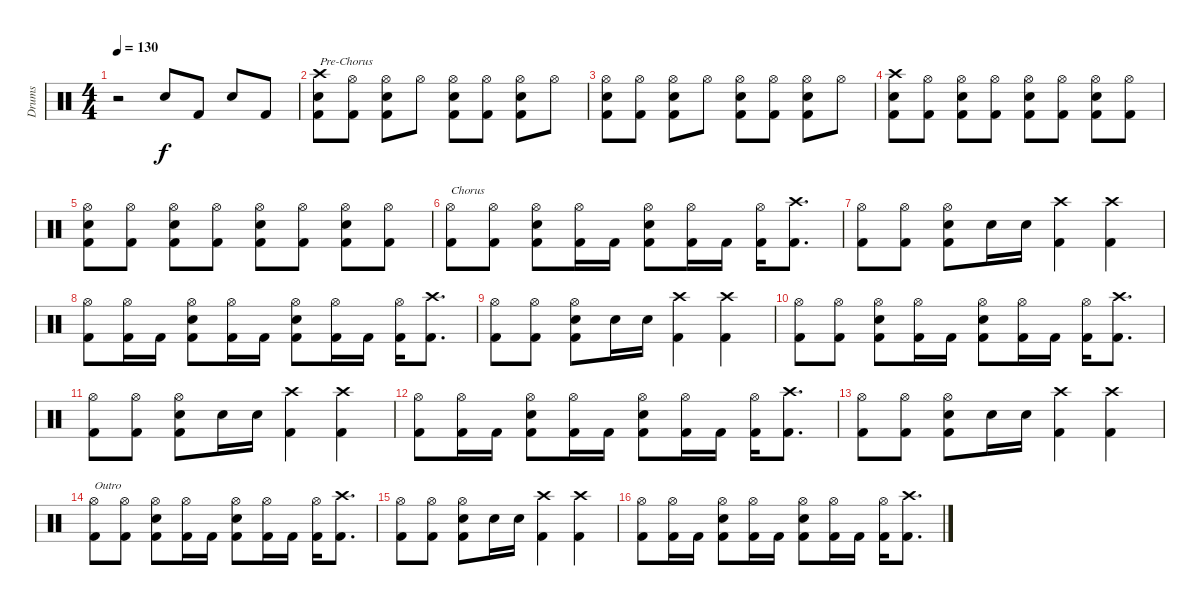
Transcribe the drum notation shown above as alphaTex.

\track ("Drums" "Drums") {instrument percussion}
\staff {score}
\articulation defaults
\ts (4 4)
\tempo 130
\clef neutral
\ks c
r.2{dy f} "Snare (hit) 2".8 "Kick (hit) 2".8 "Snare (hit) 2".8 "Kick (hit) 2".8 |
("Crash high (hit)" "Snare (hit) 2" "Kick (hit) 2").8{txt "Pre-Chorus"} ("Hi-Hat (open)" "Kick (hit) 2").8 ("Hi-Hat (open)" "Snare (hit) 2" "Kick (hit) 2").8 "Hi-Hat (open)".8 ("Hi-Hat (open)" "Snare (hit) 2" "Kick (hit) 2").8 ("Hi-Hat (open)" "Kick (hit) 2").8 ("Hi-Hat (open)" "Snare (hit) 2" "Kick (hit) 2").8 "Hi-Hat (open)".8 |
("Hi-Hat (open)" "Snare (hit) 2" "Kick (hit) 2").8 ("Hi-Hat (open)" "Kick (hit) 2").8 ("Hi-Hat (open)" "Snare (hit) 2" "Kick (hit) 2").8 "Hi-Hat (open)".8 ("Hi-Hat (open)" "Snare (hit) 2" "Kick (hit) 2").8 ("Hi-Hat (open)" "Kick (hit) 2").8 ("Hi-Hat (open)" "Snare (hit) 2" "Kick (hit) 2").8 "Hi-Hat (open)".8 |
("Crash high (hit)" "Snare (hit) 2" "Kick (hit) 2").8 ("Hi-Hat (open)" "Kick (hit) 2").8 ("Hi-Hat (open)" "Snare (hit) 2" "Kick (hit) 2").8 ("Hi-Hat (open)" "Kick (hit) 2").8 ("Hi-Hat (open)" "Snare (hit) 2" "Kick (hit) 2").8 ("Hi-Hat (open)" "Kick (hit) 2").8 ("Hi-Hat (open)" "Snare (hit) 2" "Kick (hit) 2").8 ("Hi-Hat (open)" "Kick (hit) 2").8 |
("Hi-Hat (open)" "Snare (hit) 2" "Kick (hit) 2").8 ("Hi-Hat (open)" "Kick (hit) 2").8 ("Hi-Hat (open)" "Snare (hit) 2" "Kick (hit) 2").8 ("Hi-Hat (open)" "Kick (hit) 2").8 ("Hi-Hat (open)" "Snare (hit) 2" "Kick (hit) 2").8 ("Hi-Hat (open)" "Kick (hit) 2").8 ("Hi-Hat (open)" "Snare (hit) 2" "Kick (hit) 2").8 ("Hi-Hat (open)" "Kick (hit) 2").8 |
("Hi-Hat (open)" "Kick (hit) 2").8{txt "Chorus"} ("Hi-Hat (open)" "Kick (hit) 2").8 ("Hi-Hat (open)" "Snare (hit) 2" "Kick (hit) 2").8 ("Hi-Hat (open)" "Kick (hit) 2").16 "Kick (hit) 2".16 ("Hi-Hat (open)" "Snare (hit) 2" "Kick (hit) 2").8 ("Hi-Hat (open)" "Kick (hit) 2").16 "Kick (hit) 2".16 ("Hi-Hat (open)" "Kick (hit) 2").16 ("Crash high (hit)" "Kick (hit) 2").8{d} |
("Hi-Hat (open)" "Kick (hit) 2").8 ("Hi-Hat (open)" "Kick (hit) 2").8 ("Hi-Hat (open)" "Snare (hit) 2" "Kick (hit) 2").8 "Snare (hit) 2".16 "Snare (hit) 2".16 ("Crash high (hit)" "Kick (hit) 2").4 ("Crash high (hit)" "Kick (hit) 2").4 |
("Hi-Hat (open)" "Kick (hit) 2").8 ("Hi-Hat (open)" "Kick (hit) 2").16 "Kick (hit) 2".16 ("Hi-Hat (open)" "Snare (hit) 2" "Kick (hit) 2").8 ("Hi-Hat (open)" "Kick (hit) 2").16 "Kick (hit) 2".16 ("Hi-Hat (open)" "Snare (hit) 2" "Kick (hit) 2").8 ("Hi-Hat (open)" "Kick (hit) 2").16 "Kick (hit) 2".16 ("Hi-Hat (open)" "Kick (hit) 2").16 ("Crash high (hit)" "Kick (hit) 2").8{d} |
("Hi-Hat (open)" "Kick (hit) 2").8 ("Hi-Hat (open)" "Kick (hit) 2").8 ("Hi-Hat (open)" "Snare (hit) 2" "Kick (hit) 2").8 "Snare (hit) 2".16 "Snare (hit) 2".16 ("Crash high (hit)" "Kick (hit) 2").4 ("Crash high (hit)" "Kick (hit) 2").4 |
("Hi-Hat (open)" "Kick (hit) 2").8 ("Hi-Hat (open)" "Kick (hit) 2").8 ("Hi-Hat (open)" "Snare (hit) 2" "Kick (hit) 2").8 ("Hi-Hat (open)" "Kick (hit) 2").16 "Kick (hit) 2".16 ("Hi-Hat (open)" "Snare (hit) 2" "Kick (hit) 2").8 ("Hi-Hat (open)" "Kick (hit) 2").16 "Kick (hit) 2".16 ("Hi-Hat (open)" "Kick (hit) 2").16 ("Crash high (hit)" "Kick (hit) 2").8{d} |
("Hi-Hat (open)" "Kick (hit) 2").8 ("Hi-Hat (open)" "Kick (hit) 2").8 ("Hi-Hat (open)" "Snare (hit) 2" "Kick (hit) 2").8 "Snare (hit) 2".16 "Snare (hit) 2".16 ("Crash high (hit)" "Kick (hit) 2").4 ("Crash high (hit)" "Kick (hit) 2").4 |
("Hi-Hat (open)" "Kick (hit) 2").8 ("Hi-Hat (open)" "Kick (hit) 2").16 "Kick (hit) 2".16 ("Hi-Hat (open)" "Snare (hit) 2" "Kick (hit) 2").8 ("Hi-Hat (open)" "Kick (hit) 2").16 "Kick (hit) 2".16 ("Hi-Hat (open)" "Snare (hit) 2" "Kick (hit) 2").8 ("Hi-Hat (open)" "Kick (hit) 2").16 "Kick (hit) 2".16 ("Hi-Hat (open)" "Kick (hit) 2").16 ("Crash high (hit)" "Kick (hit) 2").8{d} |
("Hi-Hat (open)" "Kick (hit) 2").8 ("Hi-Hat (open)" "Kick (hit) 2").8 ("Hi-Hat (open)" "Snare (hit) 2" "Kick (hit) 2").8 "Snare (hit) 2".16 "Snare (hit) 2".16 ("Crash high (hit)" "Kick (hit) 2").4 ("Crash high (hit)" "Kick (hit) 2").4 |
("Hi-Hat (open)" "Kick (hit) 2").8{txt "Outro"} ("Hi-Hat (open)" "Kick (hit) 2").8 ("Hi-Hat (open)" "Snare (hit) 2" "Kick (hit) 2").8 ("Hi-Hat (open)" "Kick (hit) 2").16 "Kick (hit) 2".16 ("Hi-Hat (open)" "Snare (hit) 2" "Kick (hit) 2").8 ("Hi-Hat (open)" "Kick (hit) 2").16 "Kick (hit) 2".16 ("Hi-Hat (open)" "Kick (hit) 2").16 ("Crash high (hit)" "Kick (hit) 2").8{d} |
("Hi-Hat (open)" "Kick (hit) 2").8 ("Hi-Hat (open)" "Kick (hit) 2").8 ("Hi-Hat (open)" "Snare (hit) 2" "Kick (hit) 2").8 "Snare (hit) 2".16 "Snare (hit) 2".16 ("Crash high (hit)" "Kick (hit) 2").4 ("Crash high (hit)" "Kick (hit) 2").4 |
("Hi-Hat (open)" "Kick (hit) 2").8 ("Hi-Hat (open)" "Kick (hit) 2").16 "Kick (hit) 2".16 ("Hi-Hat (open)" "Snare (hit) 2" "Kick (hit) 2").8 ("Hi-Hat (open)" "Kick (hit) 2").16 "Kick (hit) 2".16 ("Hi-Hat (open)" "Snare (hit) 2" "Kick (hit) 2").8 ("Hi-Hat (open)" "Kick (hit) 2").16 "Kick (hit) 2".16 ("Hi-Hat (open)" "Kick (hit) 2").16 ("Crash high (hit)" "Kick (hit) 2").8{d}
